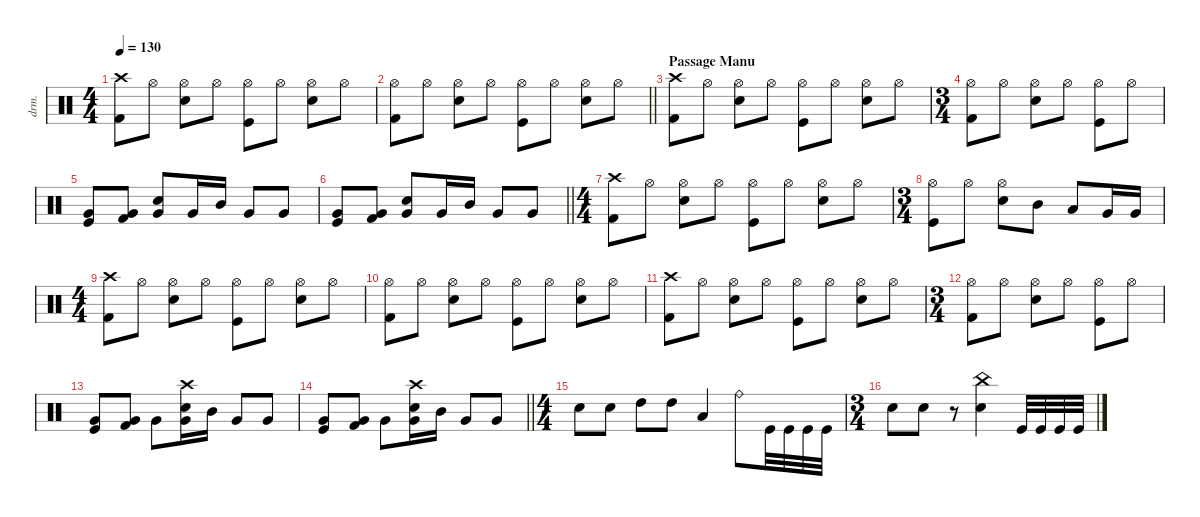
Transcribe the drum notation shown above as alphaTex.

\defaultSystemsLayout 4
\hideDynamics
\bracketExtendMode nobrackets
\otherSystemsTrackNameOrientation horizontal
\track ("Manouche" "drm.") {instrument percussion}
\staff {score}
\articulation defaults
\ts (4 4)
\beaming (8 2 2 2 2)
\tempo 130
\clef neutral
\ks c
("Kick (hit) 2" "Crash high (hit)").8{dy f} "Hi-Hat (open)".8{dy mp} ("Hi-Hat (open)" "Snare (hit) 2").8{dy f} "Hi-Hat (open)".8{dy mp} ("Hi-Hat (open)" "Kick (hit)").8{dy f} "Hi-Hat (open)".8{dy mp} ("Hi-Hat (open)" "Snare (hit) 2").8{dy f} "Hi-Hat (open)".8{dy mp} |
\barLineRight lightlight
("Hi-Hat (open)" "Kick (hit) 2").8{dy f} "Hi-Hat (open)".8{dy mp} ("Hi-Hat (open)" "Snare (hit) 2").8{dy f} "Hi-Hat (open)".8{dy mp} ("Hi-Hat (open)" "Kick (hit)").8{dy f} "Hi-Hat (open)".8{dy mp} ("Hi-Hat (open)" "Snare (hit) 2").8{dy f} "Hi-Hat (open)".8{dy mp} |
\section ("" "Passage Manu")
("Kick (hit) 2" "Crash high (hit)").8{dy f} "Hi-Hat (open)".8{dy mp} ("Hi-Hat (open)" "Snare (hit) 2").8{dy f} "Hi-Hat (open)".8{dy mp} ("Hi-Hat (open)" "Kick (hit)").8{dy f} "Hi-Hat (open)".8{dy mp} ("Hi-Hat (open)" "Snare (hit) 2").8{dy f} "Hi-Hat (open)".8{dy mp} |
\ts (3 4)
\beaming (8 2 2 2 2)
("Hi-Hat (open)" "Kick (hit) 2").8{dy f} "Hi-Hat (open)".8{dy mp} ("Hi-Hat (open)" "Snare (hit) 2").8{dy f} "Hi-Hat (open)".8{dy mp} ("Hi-Hat (open)" "Kick (hit)").8{dy f} "Hi-Hat (open)".8{dy mp} |
\beaming (8 2 2 2)
("Kick (hit)" "Very Low Tom (hit)").8{dy f} ("Very Low Tom (hit)" "Kick (hit) 2").8 ("Very Low Tom (hit)" "Snare (hit) 2").8 "Very Low Tom (hit)".16 "Mid Tom (hit)".16 "Very Low Tom (hit)".8 "Very Low Tom (hit)".8 |
\barLineRight lightlight
("Kick (hit)" "Very Low Tom (hit)").8 ("Very Low Tom (hit)" "Kick (hit) 2").8 ("Very Low Tom (hit)" "Snare (hit) 2").8 "Very Low Tom (hit)".16 "Mid Tom (hit)".16 "Very Low Tom (hit)".8 "Very Low Tom (hit)".8 |
\ts (4 4)
\beaming (8 2 2 2 2)
("Crash high (hit)" "Kick (hit) 2").8{dy fff} "Hi-Hat (open)".8{dy mp} ("Hi-Hat (open)" "Snare (hit) 2").8{dy f} "Hi-Hat (open)".8{dy mp} ("Hi-Hat (open)" "Kick (hit)").8{dy f} "Hi-Hat (open)".8{dy mp} ("Hi-Hat (open)" "Snare (hit) 2").8{dy f} "Hi-Hat (open)".8{dy mp} |
\ts (3 4)
\beaming (8 2 2 2)
("Hi-Hat (open)" "Kick (hit)").8{dy f} "Hi-Hat (open)".8{dy mp} ("Hi-Hat (open)" "Snare (hit) 2").8{dy f} "Mid Tom (hit)".8 "Low Tom (hit)".8 "Very Low Tom (hit)".16 "Very Low Tom (hit)".16 |
\ts (4 4)
\beaming (8 2 2 2 2)
("Kick (hit) 2" "Crash high (hit)").8 "Hi-Hat (open)".8{dy mp} ("Hi-Hat (open)" "Snare (hit) 2").8{dy f} "Hi-Hat (open)".8{dy mp} ("Hi-Hat (open)" "Kick (hit)").8{dy f} "Hi-Hat (open)".8{dy mp} ("Hi-Hat (open)" "Snare (hit) 2").8{dy f} "Hi-Hat (open)".8{dy mp} |
("Hi-Hat (open)" "Kick (hit) 2").8{dy f} "Hi-Hat (open)".8{dy mp} ("Hi-Hat (open)" "Snare (hit) 2").8{dy f} "Hi-Hat (open)".8{dy mp} ("Hi-Hat (open)" "Kick (hit)").8{dy f} "Hi-Hat (open)".8{dy mp} ("Hi-Hat (open)" "Snare (hit) 2").8{dy f} "Hi-Hat (open)".8{dy mp} |
("Kick (hit) 2" "Crash high (hit)").8{dy f} "Hi-Hat (open)".8{dy mp} ("Hi-Hat (open)" "Snare (hit) 2").8{dy f} "Hi-Hat (open)".8{dy mp} ("Hi-Hat (open)" "Kick (hit)").8{dy f} "Hi-Hat (open)".8{dy mp} ("Hi-Hat (open)" "Snare (hit) 2").8{dy f} "Hi-Hat (open)".8{dy mp} |
\ts (3 4)
\beaming (8 2 2 2)
("Hi-Hat (open)" "Kick (hit) 2").8{dy f} "Hi-Hat (open)".8{dy mp} ("Hi-Hat (open)" "Snare (hit) 2").8{dy f} "Hi-Hat (open)".8{dy mp} ("Hi-Hat (open)" "Kick (hit)").8{dy f} "Hi-Hat (open)".8{dy mp} |
("Kick (hit)" "Very Low Tom (hit)").8{dy f} ("Very Low Tom (hit)" "Kick (hit) 2").8 "Very Low Tom (hit)".8 ("Very Low Tom (hit)" "Crash high (hit)" "Snare (hit) 2").16 "Mid Tom (hit)".16 "Very Low Tom (hit)".8 "Very Low Tom (hit)".8 |
\barLineRight lightlight
("Kick (hit)" "Very Low Tom (hit)").8 ("Very Low Tom (hit)" "Kick (hit) 2").8 "Very Low Tom (hit)".8 ("Very Low Tom (hit)" "Crash high (hit)" "Snare (hit) 2").16 "Mid Tom (hit)".16 "Very Low Tom (hit)".8 "Very Low Tom (hit)".8 |
\ts (4 4)
\beaming (8 2 2 2 2)
"Snare (hit) 2".8 "Snare (hit) 2".8 "High Tom (hit)".8 "High Tom (hit)".8 "Low Tom (hit)".4 "Ride (bell)".8 "Kick (hit)".32 "Kick (hit)".32 "Kick (hit)".32 "Kick (hit)".32 |
\ts (3 4)
\beaming (8 2 2 2)
"Snare (hit) 2".8 "Snare (hit) 2".8 r.8 ("Snare (hit) 2" "China (hit)").4 "Kick (hit)".32 "Kick (hit)".32 "Kick (hit)".32 "Kick (hit)".32
